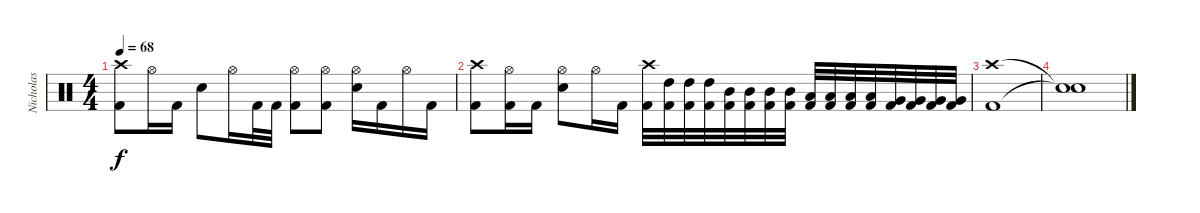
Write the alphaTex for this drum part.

\track ("Nicholas" "Nicholas") {instrument percussion}
\staff {score}
\articulation defaults
\ts (4 4)
\tempo 68
\clef neutral
\ks c
("Kick (hit) 2" "Crash high (hit)").8{dy f} "Hi-Hat (open)".16 "Kick (hit) 2".16 "Snare (hit) 2".8 "Hi-Hat (open)".16 "Kick (hit) 2".32 "Kick (hit) 2".32 ("Kick (hit) 2" "Hi-Hat (open)").8 ("Kick (hit) 2" "Hi-Hat (open)").8 ("Snare (hit) 2" "Hi-Hat (open)").16 "Kick (hit) 2".16 "Hi-Hat (open)".16 "Kick (hit) 2".16 |
("Kick (hit) 2" "Crash high (hit)").8 ("Kick (hit) 2" "Hi-Hat (open)").16 "Kick (hit) 2".16 ("Snare (hit) 2" "Hi-Hat (open)").8 "Hi-Hat (open)".16 "Kick (hit) 2".16 ("Kick (hit) 2" "Crash high (hit)").32 ("Kick (hit) 2" "High Tom (hit)").32 ("Kick (hit) 2" "High Tom (hit)").32 ("Kick (hit) 2" "High Tom (hit)").32 ("Kick (hit) 2" "Mid Tom (hit)").32 ("Kick (hit) 2" "Mid Tom (hit)").32 ("Kick (hit) 2" "Mid Tom (hit)").32 ("Kick (hit) 2" "Mid Tom (hit)").32 ("Kick (hit) 2" "Low Tom (hit)").32 ("Kick (hit) 2" "Low Tom (hit)").32 ("Kick (hit) 2" "Low Tom (hit)").32 ("Kick (hit) 2" "Low Tom (hit)").32 ("Kick (hit) 2" "Very Low Tom (hit)").32 ("Kick (hit) 2" "Very Low Tom (hit)").32 ("Kick (hit) 2" "Very Low Tom (hit)").32 ("Kick (hit) 2" "Very Low Tom (hit)").32 |
("Kick (hit) 2" "Crash high (hit)").1 |
("Snare (hit)"{t} "Snare (hit)"{t}).1
